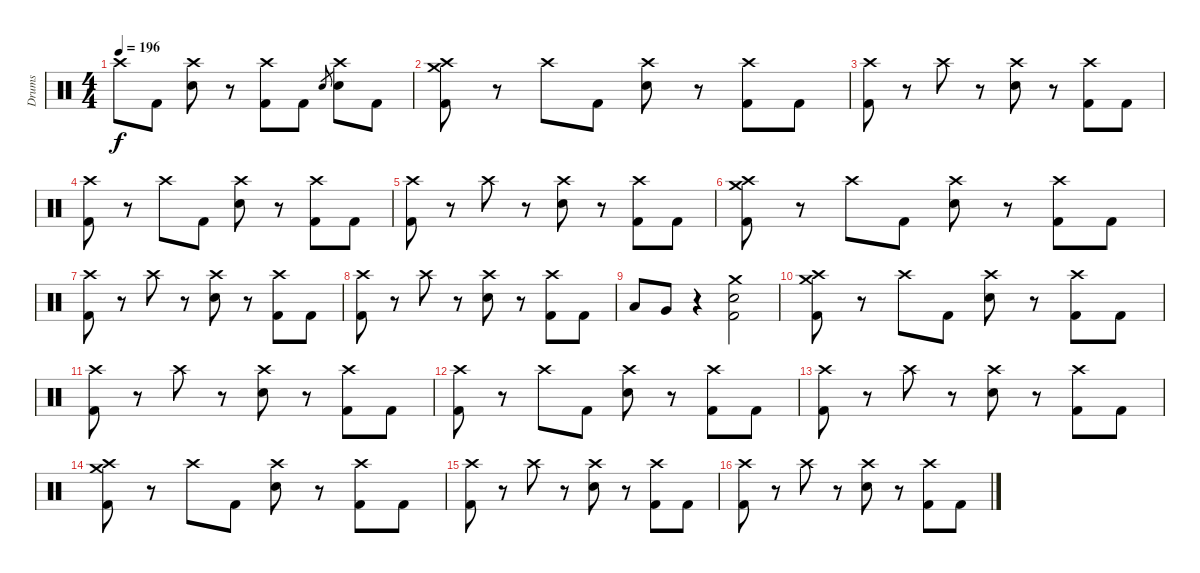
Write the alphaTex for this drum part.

\track ("Drums" "Drums") {instrument percussion}
\staff {score}
\articulation defaults
\ts (4 4)
\tempo 196
\clef neutral
\ks c "Crash high (hit)".8{dy f} "Kick (hit) 2".8
("Crash high (hit)" "Electric Snare (hit)").8 r.8 ("Crash high (hit)" "Kick (hit) 2").8 "Kick (hit) 2".8 "Electric Snare (hit)".8{gr} ("Crash high (hit)" "Electric Snare (hit)").8 "Kick (hit) 2".8 |
("Crash medium (hit)" "Crash high (hit)" "Kick (hit) 2").8 r.8 "Crash high (hit)".8 "Kick (hit) 2".8 ("Crash high (hit)" "Electric Snare (hit)").8 r.8 ("Crash high (hit)" "Kick (hit) 2").8 "Kick (hit) 2".8 |
("Crash high (hit)" "Kick (hit) 2").8 r.8 "Crash high (hit)".8 r.8 ("Crash high (hit)" "Electric Snare (hit)").8 r.8 ("Crash high (hit)" "Kick (hit) 2").8 "Kick (hit) 2".8 |
("Crash high (hit)" "Kick (hit) 2").8 r.8 "Crash high (hit)".8 "Kick (hit) 2".8 ("Crash high (hit)" "Electric Snare (hit)").8 r.8 ("Crash high (hit)" "Kick (hit) 2").8 "Kick (hit) 2".8 |
("Crash high (hit)" "Kick (hit) 2").8 r.8 "Crash high (hit)".8 r.8 ("Crash high (hit)" "Electric Snare (hit)").8 r.8 ("Crash high (hit)" "Kick (hit) 2").8 "Kick (hit) 2".8 |
("Crash medium (hit)" "Crash high (hit)" "Kick (hit) 2").8 r.8 "Crash high (hit)".8 "Kick (hit) 2".8 ("Crash high (hit)" "Electric Snare (hit)").8 r.8 ("Crash high (hit)" "Kick (hit) 2").8 "Kick (hit) 2".8 |
("Crash high (hit)" "Kick (hit) 2").8 r.8 "Crash high (hit)".8 r.8 ("Crash high (hit)" "Electric Snare (hit)").8 r.8 ("Crash high (hit)" "Kick (hit) 2").8 "Kick (hit) 2".8 |
("Crash high (hit)" "Kick (hit) 2").8 r.8 "Crash high (hit)".8 r.8 ("Crash high (hit)" "Electric Snare (hit)").8 r.8 ("Crash high (hit)" "Kick (hit) 2").8 "Kick (hit) 2".8 |
"Low Tom (hit)".8 "Very Low Tom (hit)".8 r.4 ("Crash medium (hit)" "Electric Snare (hit)" "Kick (hit) 2").2 |
("Crash medium (hit)" "Crash high (hit)" "Kick (hit) 2").8 r.8 "Crash high (hit)".8 "Kick (hit) 2".8 ("Crash high (hit)" "Electric Snare (hit)").8 r.8 ("Crash high (hit)" "Kick (hit) 2").8 "Kick (hit) 2".8 |
("Crash high (hit)" "Kick (hit) 2").8 r.8 "Crash high (hit)".8 r.8 ("Crash high (hit)" "Electric Snare (hit)").8 r.8 ("Crash high (hit)" "Kick (hit) 2").8 "Kick (hit) 2".8 |
("Crash high (hit)" "Kick (hit) 2").8 r.8 "Crash high (hit)".8 "Kick (hit) 2".8 ("Crash high (hit)" "Electric Snare (hit)").8 r.8 ("Crash high (hit)" "Kick (hit) 2").8 "Kick (hit) 2".8 |
("Crash high (hit)" "Kick (hit) 2").8 r.8 "Crash high (hit)".8 r.8 ("Crash high (hit)" "Electric Snare (hit)").8 r.8 ("Crash high (hit)" "Kick (hit) 2").8 "Kick (hit) 2".8 |
("Crash medium (hit)" "Crash high (hit)" "Kick (hit) 2").8 r.8 "Crash high (hit)".8 "Kick (hit) 2".8 ("Crash high (hit)" "Electric Snare (hit)").8 r.8 ("Crash high (hit)" "Kick (hit) 2").8 "Kick (hit) 2".8 |
("Crash high (hit)" "Kick (hit) 2").8 r.8 "Crash high (hit)".8 r.8 ("Crash high (hit)" "Electric Snare (hit)").8 r.8 ("Crash high (hit)" "Kick (hit) 2").8 "Kick (hit) 2".8 |
("Crash high (hit)" "Kick (hit) 2").8 r.8 "Crash high (hit)".8 r.8 ("Crash high (hit)" "Electric Snare (hit)").8 r.8 ("Crash high (hit)" "Kick (hit) 2").8 "Kick (hit) 2".8
